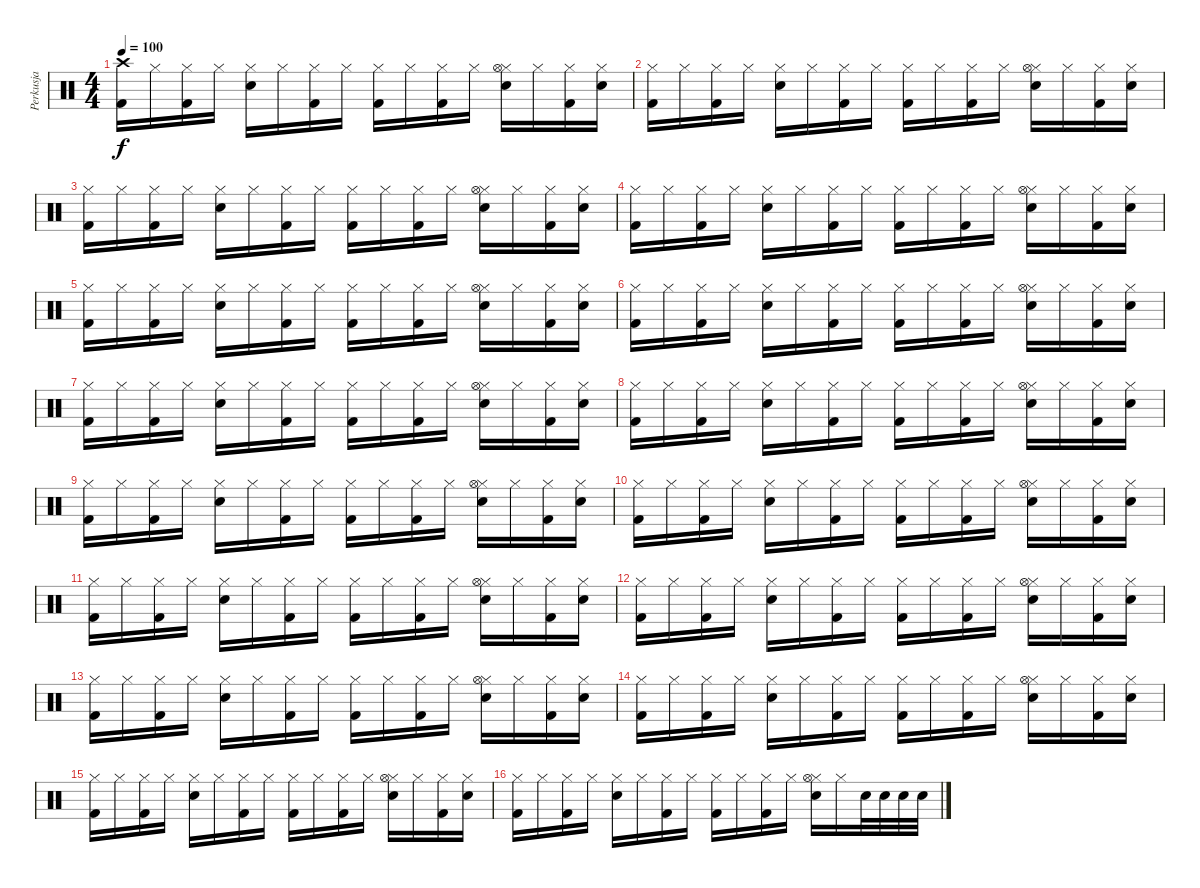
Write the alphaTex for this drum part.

\track ("Perkusja" "Perkusja") {instrument percussion}
\staff {score}
\articulation defaults
\ts (4 4)
\tempo 100
\clef neutral
\ks c
("Crash high (hit)" "Kick (hit) 2").16{dy f} "Hi-Hat (closed)".16 ("Hi-Hat (closed)" "Kick (hit) 2").16 "Hi-Hat (closed)".16 ("Hi-Hat (closed)" "Electric Snare (hit)").16 "Hi-Hat (closed)".16 ("Hi-Hat (closed)" "Kick (hit) 2").16 "Hi-Hat (closed)".16 ("Hi-Hat (closed)" "Kick (hit) 2").16 "Hi-Hat (closed)".16 ("Hi-Hat (closed)" "Kick (hit) 2").16 "Hi-Hat (closed)".16 ("Hi-Hat (closed)" "Hi-Hat (open)" "Electric Snare (hit)").16 "Hi-Hat (closed)".16 ("Hi-Hat (closed)" "Kick (hit) 2").16 ("Hi-Hat (closed)" "Electric Snare (hit)").16 |
("Hi-Hat (closed)" "Kick (hit) 2").16 "Hi-Hat (closed)".16 ("Hi-Hat (closed)" "Kick (hit) 2").16 "Hi-Hat (closed)".16 ("Hi-Hat (closed)" "Electric Snare (hit)").16 "Hi-Hat (closed)".16 ("Hi-Hat (closed)" "Kick (hit) 2").16 "Hi-Hat (closed)".16 ("Hi-Hat (closed)" "Kick (hit) 2").16 "Hi-Hat (closed)".16 ("Hi-Hat (closed)" "Kick (hit) 2").16 "Hi-Hat (closed)".16 ("Hi-Hat (closed)" "Hi-Hat (open)" "Electric Snare (hit)").16 "Hi-Hat (closed)".16 ("Hi-Hat (closed)" "Kick (hit) 2").16 ("Hi-Hat (closed)" "Electric Snare (hit)").16 |
("Hi-Hat (closed)" "Kick (hit) 2").16 "Hi-Hat (closed)".16 ("Hi-Hat (closed)" "Kick (hit) 2").16 "Hi-Hat (closed)".16 ("Hi-Hat (closed)" "Electric Snare (hit)").16 "Hi-Hat (closed)".16 ("Hi-Hat (closed)" "Kick (hit) 2").16 "Hi-Hat (closed)".16 ("Hi-Hat (closed)" "Kick (hit) 2").16 "Hi-Hat (closed)".16 ("Hi-Hat (closed)" "Kick (hit) 2").16 "Hi-Hat (closed)".16 ("Hi-Hat (closed)" "Hi-Hat (open)" "Electric Snare (hit)").16 "Hi-Hat (closed)".16 ("Hi-Hat (closed)" "Kick (hit) 2").16 ("Hi-Hat (closed)" "Electric Snare (hit)").16 |
("Hi-Hat (closed)" "Kick (hit) 2").16 "Hi-Hat (closed)".16 ("Hi-Hat (closed)" "Kick (hit) 2").16 "Hi-Hat (closed)".16 ("Hi-Hat (closed)" "Electric Snare (hit)").16 "Hi-Hat (closed)".16 ("Hi-Hat (closed)" "Kick (hit) 2").16 "Hi-Hat (closed)".16 ("Hi-Hat (closed)" "Kick (hit) 2").16 "Hi-Hat (closed)".16 ("Hi-Hat (closed)" "Kick (hit) 2").16 "Hi-Hat (closed)".16 ("Hi-Hat (closed)" "Hi-Hat (open)" "Electric Snare (hit)").16 "Hi-Hat (closed)".16 ("Hi-Hat (closed)" "Kick (hit) 2").16 ("Hi-Hat (closed)" "Electric Snare (hit)").16 |
("Hi-Hat (closed)" "Kick (hit) 2").16 "Hi-Hat (closed)".16 ("Hi-Hat (closed)" "Kick (hit) 2").16 "Hi-Hat (closed)".16 ("Hi-Hat (closed)" "Electric Snare (hit)").16 "Hi-Hat (closed)".16 ("Hi-Hat (closed)" "Kick (hit) 2").16 "Hi-Hat (closed)".16 ("Hi-Hat (closed)" "Kick (hit) 2").16 "Hi-Hat (closed)".16 ("Hi-Hat (closed)" "Kick (hit) 2").16 "Hi-Hat (closed)".16 ("Hi-Hat (closed)" "Hi-Hat (open)" "Electric Snare (hit)").16 "Hi-Hat (closed)".16 ("Hi-Hat (closed)" "Kick (hit) 2").16 ("Hi-Hat (closed)" "Electric Snare (hit)").16 |
("Hi-Hat (closed)" "Kick (hit) 2").16 "Hi-Hat (closed)".16 ("Hi-Hat (closed)" "Kick (hit) 2").16 "Hi-Hat (closed)".16 ("Hi-Hat (closed)" "Electric Snare (hit)").16 "Hi-Hat (closed)".16 ("Hi-Hat (closed)" "Kick (hit) 2").16 "Hi-Hat (closed)".16 ("Hi-Hat (closed)" "Kick (hit) 2").16 "Hi-Hat (closed)".16 ("Hi-Hat (closed)" "Kick (hit) 2").16 "Hi-Hat (closed)".16 ("Hi-Hat (closed)" "Hi-Hat (open)" "Electric Snare (hit)").16 "Hi-Hat (closed)".16 ("Hi-Hat (closed)" "Kick (hit) 2").16 ("Hi-Hat (closed)" "Electric Snare (hit)").16 |
("Hi-Hat (closed)" "Kick (hit) 2").16 "Hi-Hat (closed)".16 ("Hi-Hat (closed)" "Kick (hit) 2").16 "Hi-Hat (closed)".16 ("Hi-Hat (closed)" "Electric Snare (hit)").16 "Hi-Hat (closed)".16 ("Hi-Hat (closed)" "Kick (hit) 2").16 "Hi-Hat (closed)".16 ("Hi-Hat (closed)" "Kick (hit) 2").16 "Hi-Hat (closed)".16 ("Hi-Hat (closed)" "Kick (hit) 2").16 "Hi-Hat (closed)".16 ("Hi-Hat (closed)" "Hi-Hat (open)" "Electric Snare (hit)").16 "Hi-Hat (closed)".16 ("Hi-Hat (closed)" "Kick (hit) 2").16 ("Hi-Hat (closed)" "Electric Snare (hit)").16 |
("Hi-Hat (closed)" "Kick (hit) 2").16 "Hi-Hat (closed)".16 ("Hi-Hat (closed)" "Kick (hit) 2").16 "Hi-Hat (closed)".16 ("Hi-Hat (closed)" "Electric Snare (hit)").16 "Hi-Hat (closed)".16 ("Hi-Hat (closed)" "Kick (hit) 2").16 "Hi-Hat (closed)".16 ("Hi-Hat (closed)" "Kick (hit) 2").16 "Hi-Hat (closed)".16 ("Hi-Hat (closed)" "Kick (hit) 2").16 "Hi-Hat (closed)".16 ("Hi-Hat (closed)" "Hi-Hat (open)" "Electric Snare (hit)").16 "Hi-Hat (closed)".16 ("Hi-Hat (closed)" "Kick (hit) 2").16 ("Hi-Hat (closed)" "Electric Snare (hit)").16 |
("Hi-Hat (closed)" "Kick (hit) 2").16 "Hi-Hat (closed)".16 ("Hi-Hat (closed)" "Kick (hit) 2").16 "Hi-Hat (closed)".16 ("Hi-Hat (closed)" "Electric Snare (hit)").16 "Hi-Hat (closed)".16 ("Hi-Hat (closed)" "Kick (hit) 2").16 "Hi-Hat (closed)".16 ("Hi-Hat (closed)" "Kick (hit) 2").16 "Hi-Hat (closed)".16 ("Hi-Hat (closed)" "Kick (hit) 2").16 "Hi-Hat (closed)".16 ("Hi-Hat (closed)" "Hi-Hat (open)" "Electric Snare (hit)").16 "Hi-Hat (closed)".16 ("Hi-Hat (closed)" "Kick (hit) 2").16 ("Hi-Hat (closed)" "Electric Snare (hit)").16 |
("Hi-Hat (closed)" "Kick (hit) 2").16 "Hi-Hat (closed)".16 ("Hi-Hat (closed)" "Kick (hit) 2").16 "Hi-Hat (closed)".16 ("Hi-Hat (closed)" "Electric Snare (hit)").16 "Hi-Hat (closed)".16 ("Hi-Hat (closed)" "Kick (hit) 2").16 "Hi-Hat (closed)".16 ("Hi-Hat (closed)" "Kick (hit) 2").16 "Hi-Hat (closed)".16 ("Hi-Hat (closed)" "Kick (hit) 2").16 "Hi-Hat (closed)".16 ("Hi-Hat (closed)" "Hi-Hat (open)" "Electric Snare (hit)").16 "Hi-Hat (closed)".16 ("Hi-Hat (closed)" "Kick (hit) 2").16 ("Hi-Hat (closed)" "Electric Snare (hit)").16 |
("Hi-Hat (closed)" "Kick (hit) 2").16 "Hi-Hat (closed)".16 ("Hi-Hat (closed)" "Kick (hit) 2").16 "Hi-Hat (closed)".16 ("Hi-Hat (closed)" "Electric Snare (hit)").16 "Hi-Hat (closed)".16 ("Hi-Hat (closed)" "Kick (hit) 2").16 "Hi-Hat (closed)".16 ("Hi-Hat (closed)" "Kick (hit) 2").16 "Hi-Hat (closed)".16 ("Hi-Hat (closed)" "Kick (hit) 2").16 "Hi-Hat (closed)".16 ("Hi-Hat (closed)" "Hi-Hat (open)" "Electric Snare (hit)").16 "Hi-Hat (closed)".16 ("Hi-Hat (closed)" "Kick (hit) 2").16 ("Hi-Hat (closed)" "Electric Snare (hit)").16 |
("Hi-Hat (closed)" "Kick (hit) 2").16 "Hi-Hat (closed)".16 ("Hi-Hat (closed)" "Kick (hit) 2").16 "Hi-Hat (closed)".16 ("Hi-Hat (closed)" "Electric Snare (hit)").16 "Hi-Hat (closed)".16 ("Hi-Hat (closed)" "Kick (hit) 2").16 "Hi-Hat (closed)".16 ("Hi-Hat (closed)" "Kick (hit) 2").16 "Hi-Hat (closed)".16 ("Hi-Hat (closed)" "Kick (hit) 2").16 "Hi-Hat (closed)".16 ("Hi-Hat (closed)" "Hi-Hat (open)" "Electric Snare (hit)").16 "Hi-Hat (closed)".16 ("Hi-Hat (closed)" "Kick (hit) 2").16 ("Hi-Hat (closed)" "Electric Snare (hit)").16 |
("Hi-Hat (closed)" "Kick (hit) 2").16 "Hi-Hat (closed)".16 ("Hi-Hat (closed)" "Kick (hit) 2").16 "Hi-Hat (closed)".16 ("Hi-Hat (closed)" "Electric Snare (hit)").16 "Hi-Hat (closed)".16 ("Hi-Hat (closed)" "Kick (hit) 2").16 "Hi-Hat (closed)".16 ("Hi-Hat (closed)" "Kick (hit) 2").16 "Hi-Hat (closed)".16 ("Hi-Hat (closed)" "Kick (hit) 2").16 "Hi-Hat (closed)".16 ("Hi-Hat (closed)" "Hi-Hat (open)" "Electric Snare (hit)").16 "Hi-Hat (closed)".16 ("Hi-Hat (closed)" "Kick (hit) 2").16 ("Hi-Hat (closed)" "Electric Snare (hit)").16 |
("Hi-Hat (closed)" "Kick (hit) 2").16 "Hi-Hat (closed)".16 ("Hi-Hat (closed)" "Kick (hit) 2").16 "Hi-Hat (closed)".16 ("Hi-Hat (closed)" "Electric Snare (hit)").16 "Hi-Hat (closed)".16 ("Hi-Hat (closed)" "Kick (hit) 2").16 "Hi-Hat (closed)".16 ("Hi-Hat (closed)" "Kick (hit) 2").16 "Hi-Hat (closed)".16 ("Hi-Hat (closed)" "Kick (hit) 2").16 "Hi-Hat (closed)".16 ("Hi-Hat (closed)" "Hi-Hat (open)" "Electric Snare (hit)").16 "Hi-Hat (closed)".16 ("Hi-Hat (closed)" "Kick (hit) 2").16 ("Hi-Hat (closed)" "Electric Snare (hit)").16 |
("Hi-Hat (closed)" "Kick (hit) 2").16 "Hi-Hat (closed)".16 ("Hi-Hat (closed)" "Kick (hit) 2").16 "Hi-Hat (closed)".16 ("Hi-Hat (closed)" "Electric Snare (hit)").16 "Hi-Hat (closed)".16 ("Hi-Hat (closed)" "Kick (hit) 2").16 "Hi-Hat (closed)".16 ("Hi-Hat (closed)" "Kick (hit) 2").16 "Hi-Hat (closed)".16 ("Hi-Hat (closed)" "Kick (hit) 2").16 "Hi-Hat (closed)".16 ("Hi-Hat (closed)" "Hi-Hat (open)" "Electric Snare (hit)").16 "Hi-Hat (closed)".16 ("Hi-Hat (closed)" "Kick (hit) 2").16 ("Hi-Hat (closed)" "Electric Snare (hit)").16 |
("Hi-Hat (closed)" "Kick (hit) 2").16 "Hi-Hat (closed)".16 ("Hi-Hat (closed)" "Kick (hit) 2").16 "Hi-Hat (closed)".16 ("Hi-Hat (closed)" "Electric Snare (hit)").16 "Hi-Hat (closed)".16 ("Hi-Hat (closed)" "Kick (hit) 2").16 "Hi-Hat (closed)".16 ("Hi-Hat (closed)" "Kick (hit) 2").16 "Hi-Hat (closed)".16 ("Hi-Hat (closed)" "Kick (hit) 2").16 "Hi-Hat (closed)".16 ("Hi-Hat (closed)" "Hi-Hat (open)" "Electric Snare (hit)").16 "Hi-Hat (closed)".16 "Electric Snare (hit)".32 "Electric Snare (hit)".32 "Electric Snare (hit)".32 "Electric Snare (hit)".32
